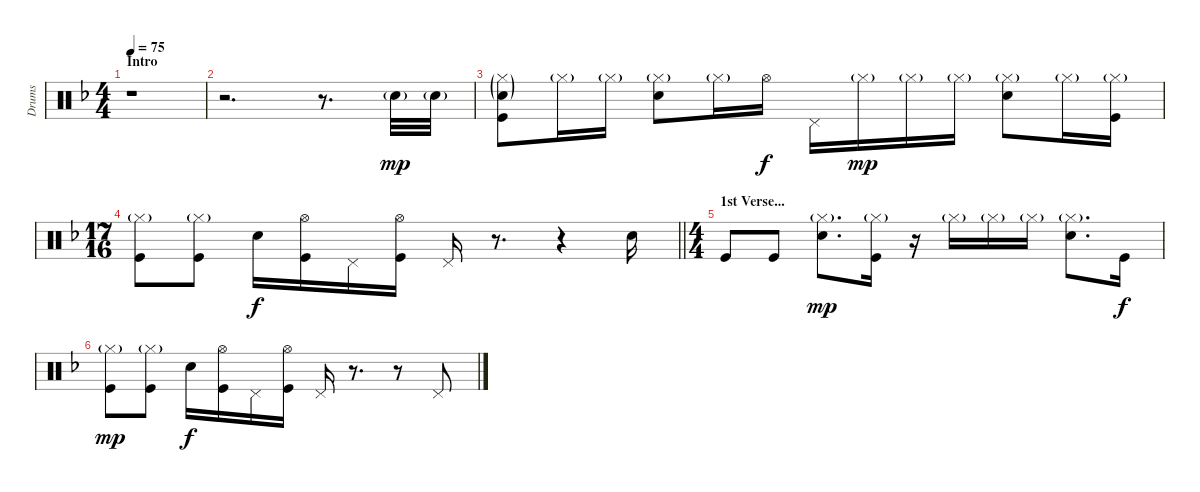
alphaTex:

\track ("Drums" "Drums") {instrument percussion}
\staff {score}
\articulation defaults
\ts (4 4)
\section ("" "Intro")
\tempo 75
\clef neutral
\ks dminor
r.1{dy mp} |
r.2{d} r.8{d} "Snare (hit) 2"{g}.32 "Snare (hit) 2"{g}.32 |
("Hi-Hat (closed)"{g} "Snare (hit) 2"{g} "Kick (hit)").8 "Hi-Hat (closed)"{g}.16 "Hi-Hat (closed)"{g}.16 ("Hi-Hat (closed)"{g} "Snare (hit) 2").8 "Hi-Hat (closed)"{g}.16 "Hi-Hat (open)".16{dy f} "Pedal Hi-Hat (hit)".16 "Hi-Hat (closed)"{g}.16{dy mp} "Hi-Hat (closed)"{g}.16 "Hi-Hat (closed)"{g}.16 ("Hi-Hat (closed)"{g} "Snare (hit) 2").8 "Hi-Hat (closed)"{g}.16 ("Hi-Hat (closed)"{g} "Kick (hit)").16 |
\ts (17 16)
\barLineRight lightlight
("Hi-Hat (closed)"{g} "Kick (hit)").8{beam merge} ("Hi-Hat (closed)"{g} "Kick (hit)").8 "Snare (hit) 2".16{dy f beam merge} ("Hi-Hat (open)" "Kick (hit)").16{beam merge} "Pedal Hi-Hat (hit)".16{beam merge} ("Hi-Hat (open)" "Kick (hit)").16 "Pedal Hi-Hat (hit)".16 r.8{d} r.4 "Snare (hit) 2".16 |
\ts (4 4)
\section ("" "1st Verse...")
"Kick (hit)".8 "Kick (hit)".8 ("Hi-Hat (closed)"{g} "Snare (hit) 2").8{d dy mp} ("Hi-Hat (closed)"{g} "Kick (hit)").16 r.16 "Hi-Hat (closed)"{g}.16 "Hi-Hat (closed)"{g}.16 "Hi-Hat (closed)"{g}.16 ("Hi-Hat (closed)"{g} "Snare (hit) 2").8{d} "Kick (hit)".16{dy f} |
("Hi-Hat (closed)"{g} "Kick (hit)").8{dy mp beam merge} ("Hi-Hat (closed)"{g} "Kick (hit)").8 "Snare (hit) 2".16{dy f beam merge} ("Hi-Hat (open)" "Kick (hit)").16{beam merge} "Pedal Hi-Hat (hit)".16{beam merge} ("Hi-Hat (open)" "Kick (hit)").16 "Pedal Hi-Hat (hit)".16 r.8{d} r.8 "Pedal Hi-Hat (hit)".8
